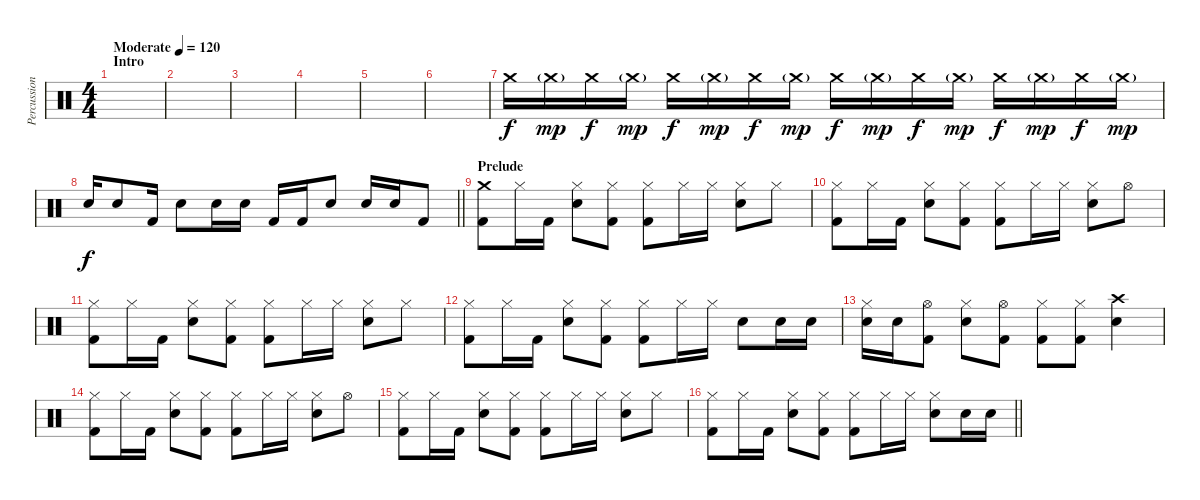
\track ("Percussion" "Percussion") {instrument percussion}
\staff {score}
\articulation defaults
\ts (4 4)
\section ("" "Intro")
\tempo (120 "Moderate")
\clef neutral
\ks c
|
|
|
|
|
|
"Crash medium (hit)".16{volume 13} "Crash medium (hit)"{g}.16{dy mp} "Crash medium (hit)".16{dy f} "Crash medium (hit)"{g}.16{dy mp} "Crash medium (hit)".16{dy f} "Crash medium (hit)"{g}.16{dy mp} "Crash medium (hit)".16{dy f} "Crash medium (hit)"{g}.16{dy mp} "Crash medium (hit)".16{dy f} "Crash medium (hit)"{g}.16{dy mp} "Crash medium (hit)".16{dy f} "Crash medium (hit)"{g}.16{dy mp} "Crash medium (hit)".16{dy f} "Crash medium (hit)"{g}.16{dy mp} "Crash medium (hit)".16{dy f} "Crash medium (hit)"{g}.16{dy mp} |
\barLineRight lightlight "Electric Snare (hit)".16{dy f} "Electric Snare (hit)".8 "Kick (hit) 2".16 "Electric Snare (hit)".8 "Electric Snare (hit)".16 "Electric Snare (hit)".16 "Kick (hit) 2".16 "Kick (hit) 2".16 "Electric Snare (hit)".8 "Electric Snare (hit)".16 "Electric Snare (hit)".16 "Kick (hit) 2".8
|
\section ("" "Prelude")
("Crash medium (hit)" "Kick (hit) 2").8 "Hi-Hat (closed)".16 "Kick (hit) 2".16 ("Hi-Hat (closed)" "Electric Snare (hit)").8 ("Hi-Hat (closed)" "Kick (hit) 2").8 ("Hi-Hat (closed)" "Kick (hit) 2").8 "Hi-Hat (closed)".16 "Hi-Hat (closed)".16 ("Hi-Hat (closed)" "Electric Snare (hit)").8 "Hi-Hat (closed)".8 |
("Hi-Hat (closed)" "Kick (hit) 2").8 "Hi-Hat (closed)".16 "Kick (hit) 2".16 ("Hi-Hat (closed)" "Electric Snare (hit)").8 ("Hi-Hat (closed)" "Kick (hit) 2").8 ("Hi-Hat (closed)" "Kick (hit) 2").8 "Hi-Hat (closed)".16 "Hi-Hat (closed)".16 ("Hi-Hat (closed)" "Electric Snare (hit)").8 "Hi-Hat (open)".8 |
("Hi-Hat (closed)" "Kick (hit) 2").8 "Hi-Hat (closed)".16 "Kick (hit) 2".16 ("Hi-Hat (closed)" "Electric Snare (hit)").8 ("Hi-Hat (closed)" "Kick (hit) 2").8 ("Hi-Hat (closed)" "Kick (hit) 2").8 "Hi-Hat (closed)".16 "Hi-Hat (closed)".16 ("Hi-Hat (closed)" "Electric Snare (hit)").8 "Hi-Hat (closed)".8 |
("Hi-Hat (closed)" "Kick (hit) 2").8 "Hi-Hat (closed)".16 "Kick (hit) 2".16 ("Hi-Hat (closed)" "Electric Snare (hit)").8 ("Hi-Hat (closed)" "Kick (hit) 2").8 ("Hi-Hat (closed)" "Kick (hit) 2").8 "Hi-Hat (closed)".16 "Hi-Hat (closed)".16 "Electric Snare (hit)".8 "Electric Snare (hit)".16 "Electric Snare (hit)".16 |
("Hi-Hat (closed)" "Electric Snare (hit)").16 "Electric Snare (hit)".16 ("Hi-Hat (open)" "Kick (hit) 2").8 ("Hi-Hat (closed)" "Electric Snare (hit)").8 ("Hi-Hat (open)" "Kick (hit) 2").8 ("Hi-Hat (closed)" "Kick (hit) 2").8 ("Hi-Hat (closed)" "Kick (hit) 2").8 ("Crash high (hit)" "Electric Snare (hit)").4 |
("Hi-Hat (closed)" "Kick (hit) 2").8 "Hi-Hat (closed)".16 "Kick (hit) 2".16 ("Hi-Hat (closed)" "Electric Snare (hit)").8 ("Hi-Hat (closed)" "Kick (hit) 2").8 ("Hi-Hat (closed)" "Kick (hit) 2").8 "Hi-Hat (closed)".16 "Hi-Hat (closed)".16 ("Hi-Hat (closed)" "Electric Snare (hit)").8 "Hi-Hat (open)".8 |
("Hi-Hat (closed)" "Kick (hit) 2").8 "Hi-Hat (closed)".16 "Kick (hit) 2".16 ("Hi-Hat (closed)" "Electric Snare (hit)").8 ("Hi-Hat (closed)" "Kick (hit) 2").8 ("Hi-Hat (closed)" "Kick (hit) 2").8 "Hi-Hat (closed)".16 "Hi-Hat (closed)".16 ("Hi-Hat (closed)" "Electric Snare (hit)").8 "Hi-Hat (closed)".8 |
\barLineRight lightlight
("Hi-Hat (closed)" "Kick (hit) 2").8 "Hi-Hat (closed)".16 "Kick (hit) 2".16 ("Hi-Hat (closed)" "Electric Snare (hit)").8 ("Hi-Hat (closed)" "Kick (hit) 2").8 ("Hi-Hat (closed)" "Kick (hit) 2").8 "Hi-Hat (closed)".16 "Hi-Hat (closed)".16 ("Hi-Hat (closed)" "Electric Snare (hit)").8 "Electric Snare (hit)".16 "Electric Snare (hit)".16
